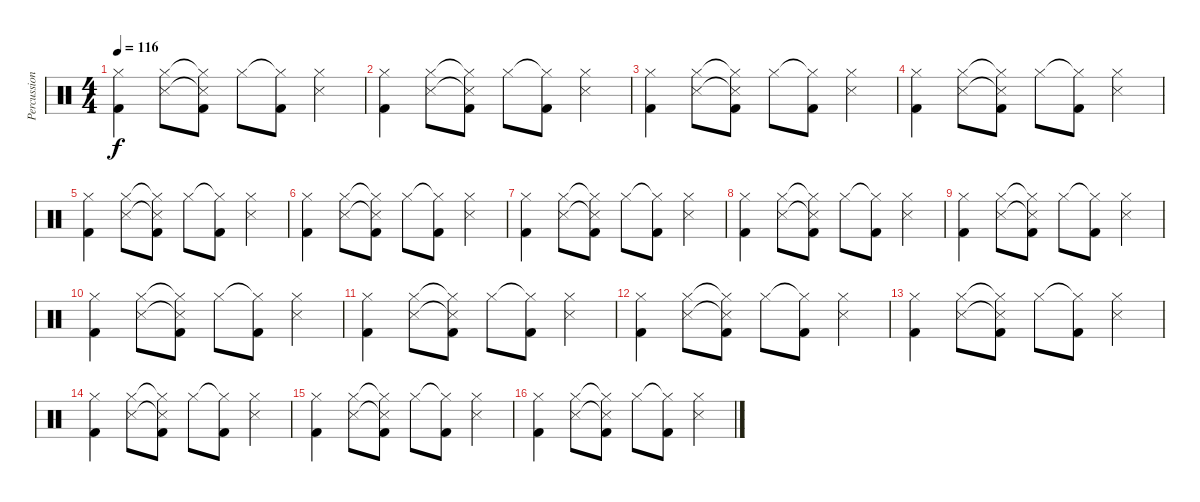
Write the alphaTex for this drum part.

\track ("Percussions" "Percussion") {instrument percussion}
\staff {score}
\articulation defaults
\ts (4 4)
\tempo 116
\clef neutral
\ks c
("Hi-Hat (closed)" "Kick (hit) 2").4{dy f} ("Hi-Hat (closed)" "Snare (side stick) 3").8 ("Hi-Hat (closed)"{t} "Snare (side stick) 3"{t} "Kick (hit) 2").8 "Hi-Hat (closed)".8 ("Hi-Hat (closed)"{t} "Kick (hit) 2").8 ("Hi-Hat (closed)" "Snare (side stick) 3").4 |
("Hi-Hat (closed)" "Kick (hit) 2").4 ("Hi-Hat (closed)" "Snare (side stick) 3").8 ("Hi-Hat (closed)"{t} "Snare (side stick) 3"{t} "Kick (hit) 2").8 "Hi-Hat (closed)".8 ("Hi-Hat (closed)"{t} "Kick (hit) 2").8 ("Hi-Hat (closed)" "Snare (side stick) 3").4 |
("Hi-Hat (closed)" "Kick (hit) 2").4 ("Hi-Hat (closed)" "Snare (side stick) 3").8 ("Hi-Hat (closed)"{t} "Snare (side stick) 3"{t} "Kick (hit) 2").8 "Hi-Hat (closed)".8 ("Hi-Hat (closed)"{t} "Kick (hit) 2").8 ("Hi-Hat (closed)" "Snare (side stick) 3").4 |
("Hi-Hat (closed)" "Kick (hit) 2").4 ("Hi-Hat (closed)" "Snare (side stick) 3").8 ("Hi-Hat (closed)"{t} "Snare (side stick) 3"{t} "Kick (hit) 2").8 "Hi-Hat (closed)".8 ("Hi-Hat (closed)"{t} "Kick (hit) 2").8 ("Hi-Hat (closed)" "Snare (side stick) 3").4 |
("Hi-Hat (closed)" "Kick (hit) 2").4 ("Hi-Hat (closed)" "Snare (side stick) 3").8 ("Hi-Hat (closed)"{t} "Snare (side stick) 3"{t} "Kick (hit) 2").8 "Hi-Hat (closed)".8 ("Hi-Hat (closed)"{t} "Kick (hit) 2").8 ("Hi-Hat (closed)" "Snare (side stick) 3").4 |
("Hi-Hat (closed)" "Kick (hit) 2").4 ("Hi-Hat (closed)" "Snare (side stick) 3").8 ("Hi-Hat (closed)"{t} "Snare (side stick) 3"{t} "Kick (hit) 2").8 "Hi-Hat (closed)".8 ("Hi-Hat (closed)"{t} "Kick (hit) 2").8 ("Hi-Hat (closed)" "Snare (side stick) 3").4 |
("Hi-Hat (closed)" "Kick (hit) 2").4 ("Hi-Hat (closed)" "Snare (side stick) 3").8 ("Hi-Hat (closed)"{t} "Snare (side stick) 3"{t} "Kick (hit) 2").8 "Hi-Hat (closed)".8 ("Hi-Hat (closed)"{t} "Kick (hit) 2").8 ("Hi-Hat (closed)" "Snare (side stick) 3").4 |
("Hi-Hat (closed)" "Kick (hit) 2").4 ("Hi-Hat (closed)" "Snare (side stick) 3").8 ("Hi-Hat (closed)"{t} "Snare (side stick) 3"{t} "Kick (hit) 2").8 "Hi-Hat (closed)".8 ("Hi-Hat (closed)"{t} "Kick (hit) 2").8 ("Hi-Hat (closed)" "Snare (side stick) 3").4 |
("Hi-Hat (closed)" "Kick (hit) 2").4 ("Hi-Hat (closed)" "Snare (side stick) 3").8 ("Hi-Hat (closed)"{t} "Snare (side stick) 3"{t} "Kick (hit) 2").8 "Hi-Hat (closed)".8 ("Hi-Hat (closed)"{t} "Kick (hit) 2").8 ("Hi-Hat (closed)" "Snare (side stick) 3").4 |
("Hi-Hat (closed)" "Kick (hit) 2").4 ("Hi-Hat (closed)" "Snare (side stick) 3").8 ("Hi-Hat (closed)"{t} "Snare (side stick) 3"{t} "Kick (hit) 2").8 "Hi-Hat (closed)".8 ("Hi-Hat (closed)"{t} "Kick (hit) 2").8 ("Hi-Hat (closed)" "Snare (side stick) 3").4 |
("Hi-Hat (closed)" "Kick (hit) 2").4 ("Hi-Hat (closed)" "Snare (side stick) 3").8 ("Hi-Hat (closed)"{t} "Snare (side stick) 3"{t} "Kick (hit) 2").8 "Hi-Hat (closed)".8 ("Hi-Hat (closed)"{t} "Kick (hit) 2").8 ("Hi-Hat (closed)" "Snare (side stick) 3").4 |
("Hi-Hat (closed)" "Kick (hit) 2").4 ("Hi-Hat (closed)" "Snare (side stick) 3").8 ("Hi-Hat (closed)"{t} "Snare (side stick) 3"{t} "Kick (hit) 2").8 "Hi-Hat (closed)".8 ("Hi-Hat (closed)"{t} "Kick (hit) 2").8 ("Hi-Hat (closed)" "Snare (side stick) 3").4 |
("Hi-Hat (closed)" "Kick (hit) 2").4 ("Hi-Hat (closed)" "Snare (side stick) 3").8 ("Hi-Hat (closed)"{t} "Snare (side stick) 3"{t} "Kick (hit) 2").8 "Hi-Hat (closed)".8 ("Hi-Hat (closed)"{t} "Kick (hit) 2").8 ("Hi-Hat (closed)" "Snare (side stick) 3").4 |
("Hi-Hat (closed)" "Kick (hit) 2").4 ("Hi-Hat (closed)" "Snare (side stick) 3").8 ("Hi-Hat (closed)"{t} "Snare (side stick) 3"{t} "Kick (hit) 2").8 "Hi-Hat (closed)".8 ("Hi-Hat (closed)"{t} "Kick (hit) 2").8 ("Hi-Hat (closed)" "Snare (side stick) 3").4 |
("Hi-Hat (closed)" "Kick (hit) 2").4 ("Hi-Hat (closed)" "Snare (side stick) 3").8 ("Hi-Hat (closed)"{t} "Snare (side stick) 3"{t} "Kick (hit) 2").8 "Hi-Hat (closed)".8 ("Hi-Hat (closed)"{t} "Kick (hit) 2").8 ("Hi-Hat (closed)" "Snare (side stick) 3").4 |
("Hi-Hat (closed)" "Kick (hit) 2").4 ("Hi-Hat (closed)" "Snare (side stick) 3").8 ("Hi-Hat (closed)"{t} "Snare (side stick) 3"{t} "Kick (hit) 2").8 "Hi-Hat (closed)".8 ("Hi-Hat (closed)"{t} "Kick (hit) 2").8 ("Hi-Hat (closed)" "Snare (side stick) 3").4
